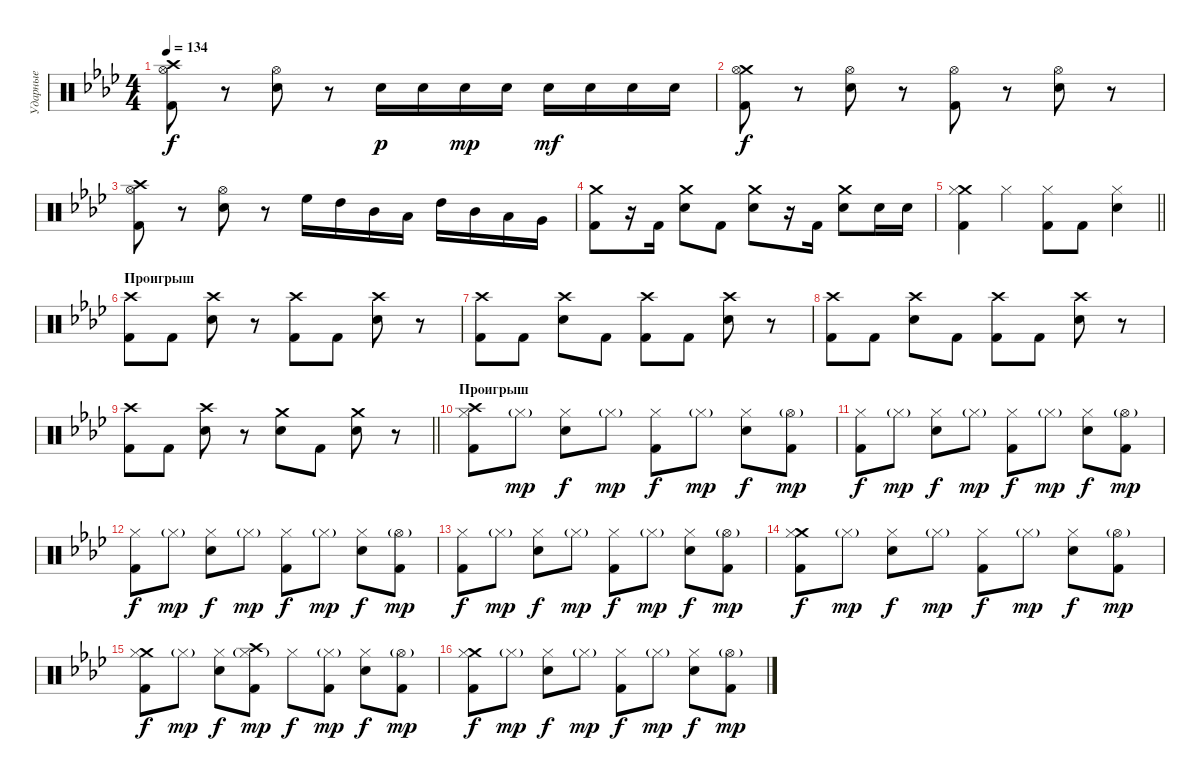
\track ("Ударные" "Ударные") {instrument percussion}
\staff {score}
\articulation defaults
\ts (4 4)
\tempo 134
\clef neutral
\ks fminor
("Crash high (hit)" "Hi-Hat (open)" "Kick (hit) 2").8{dy f} r.8 ("Hi-Hat (open)" "Electric Snare (hit)").8 r.8 "Electric Snare (hit)".16{dy p} "Electric Snare (hit)".16 "Electric Snare (hit)".16{dy mp} "Electric Snare (hit)".16 "Electric Snare (hit)".16{dy mf} "Electric Snare (hit)".16 "Electric Snare (hit)".16 "Electric Snare (hit)".16 |
("Crash medium (hit)" "Hi-Hat (open)" "Kick (hit) 2").8{dy f} r.8 ("Hi-Hat (open)" "Electric Snare (hit)").8 r.8 ("Hi-Hat (open)" "Kick (hit) 2").8 r.8 ("Hi-Hat (open)" "Electric Snare (hit)").8 r.8 |
("Crash high (hit)" "Hi-Hat (open)" "Kick (hit) 2").8 r.8 ("Hi-Hat (open)" "Electric Snare (hit)").8 r.8 "High Floor Tom (hit)".16 "High Tom (hit)".16 "Mid Tom (hit)".16 "Low Tom (hit)".16 "High Tom (hit)".16 "Mid Tom (hit)".16 "Low Tom (hit)".16 "Very Low Tom (hit)".16 |
("Crash medium (hit)" "Kick (hit) 2").8 r.16 "Kick (hit) 2".16 ("Crash medium (hit)" "Electric Snare (hit)").8 "Kick (hit) 2".8 ("Crash medium (hit)" "Electric Snare (hit)").8 r.16 "Kick (hit) 2".16 ("Crash medium (hit)" "Electric Snare (hit)").8 "Electric Snare (hit)".16 "Electric Snare (hit)".16 |
\barLineRight lightlight
("Crash medium (hit)" "Kick (hit) 2" "Hi-Hat (closed)").4 "Hi-Hat (closed)".4 ("Kick (hit) 2" "Hi-Hat (closed)").8 "Kick (hit) 2".8 ("Hi-Hat (closed)" "Electric Snare (hit)").4 |
\section ("" "Проигрыш")
("Crash high (hit)" "Kick (hit) 2").8 "Kick (hit) 2".8 ("Crash high (hit)" "Electric Snare (hit)").8 r.8 ("Crash high (hit)" "Kick (hit) 2").8 "Kick (hit) 2".8 ("Crash high (hit)" "Electric Snare (hit)").8 r.8 |
("Crash high (hit)" "Kick (hit) 2").8 "Kick (hit) 2".8 ("Crash high (hit)" "Electric Snare (hit)").8 "Kick (hit) 2".8 ("Crash high (hit)" "Kick (hit) 2").8 "Kick (hit) 2".8 ("Crash high (hit)" "Electric Snare (hit)").8 r.8 |
("Crash high (hit)" "Kick (hit) 2").8 "Kick (hit) 2".8 ("Crash high (hit)" "Electric Snare (hit)").8 "Kick (hit) 2".8 ("Crash high (hit)" "Kick (hit) 2").8 "Kick (hit) 2".8 ("Crash high (hit)" "Electric Snare (hit)").8 r.8 |
\barLineRight lightlight
("Crash high (hit)" "Kick (hit) 2").8 "Kick (hit) 2".8 ("Crash high (hit)" "Electric Snare (hit)").8 r.8 ("Crash medium (hit)" "Electric Snare (hit)").8 "Kick (hit) 2".8 ("Crash medium (hit)" "Electric Snare (hit)").8 r.8 |
\section ("" "Проигрыш")
("Crash high (hit)" "Hi-Hat (closed)" "Kick (hit) 2").8 "Hi-Hat (closed)"{g}.8{dy mp} ("Hi-Hat (closed)" "Electric Snare (hit)").8{dy f} "Hi-Hat (closed)"{g}.8{dy mp} ("Hi-Hat (closed)" "Kick (hit) 2").8{dy f} "Hi-Hat (closed)"{g}.8{dy mp} ("Hi-Hat (closed)" "Electric Snare (hit)").8{dy f} ("Hi-Hat (open)"{g} "Kick (hit) 2").8{dy mp} |
("Hi-Hat (closed)" "Kick (hit) 2").8{dy f} "Hi-Hat (closed)"{g}.8{dy mp} ("Hi-Hat (closed)" "Electric Snare (hit)").8{dy f} "Hi-Hat (closed)"{g}.8{dy mp} ("Hi-Hat (closed)" "Kick (hit) 2").8{dy f} "Hi-Hat (closed)"{g}.8{dy mp} ("Hi-Hat (closed)" "Electric Snare (hit)").8{dy f} ("Hi-Hat (open)"{g} "Kick (hit) 2").8{dy mp} |
("Hi-Hat (closed)" "Kick (hit) 2").8{dy f} "Hi-Hat (closed)"{g}.8{dy mp} ("Hi-Hat (closed)" "Electric Snare (hit)").8{dy f} "Hi-Hat (closed)"{g}.8{dy mp} ("Hi-Hat (closed)" "Kick (hit) 2").8{dy f} "Hi-Hat (closed)"{g}.8{dy mp} ("Hi-Hat (closed)" "Electric Snare (hit)").8{dy f} ("Hi-Hat (open)"{g} "Kick (hit) 2").8{dy mp} |
("Hi-Hat (closed)" "Kick (hit) 2").8{dy f} "Hi-Hat (closed)"{g}.8{dy mp} ("Hi-Hat (closed)" "Electric Snare (hit)").8{dy f} "Hi-Hat (closed)"{g}.8{dy mp} ("Hi-Hat (closed)" "Kick (hit) 2").8{dy f} "Hi-Hat (closed)"{g}.8{dy mp} ("Hi-Hat (closed)" "Electric Snare (hit)").8{dy f} ("Hi-Hat (open)"{g} "Kick (hit) 2").8{dy mp} |
("Crash medium (hit)" "Hi-Hat (closed)" "Kick (hit) 2").8{dy f} "Hi-Hat (closed)"{g}.8{dy mp} ("Hi-Hat (closed)" "Electric Snare (hit)").8{dy f} "Hi-Hat (closed)"{g}.8{dy mp} ("Hi-Hat (closed)" "Kick (hit) 2").8{dy f} "Hi-Hat (closed)"{g}.8{dy mp} ("Hi-Hat (closed)" "Electric Snare (hit)").8{dy f} ("Hi-Hat (open)"{g} "Kick (hit) 2").8{dy mp} |
("Crash medium (hit)" "Hi-Hat (closed)" "Kick (hit) 2").8{dy f} "Hi-Hat (closed)"{g}.8{dy mp} ("Hi-Hat (closed)" "Electric Snare (hit)").8{dy f} ("Crash high (hit)" "Hi-Hat (closed)"{g} "Kick (hit) 2").8{dy mp} "Hi-Hat (closed)".8{dy f} ("Hi-Hat (closed)"{g} "Kick (hit) 2").8{dy mp} ("Hi-Hat (closed)" "Electric Snare (hit)").8{dy f} ("Hi-Hat (open)"{g} "Kick (hit) 2").8{dy mp} |
("Crash medium (hit)" "Hi-Hat (closed)" "Kick (hit) 2").8{dy f} "Hi-Hat (closed)"{g}.8{dy mp} ("Hi-Hat (closed)" "Electric Snare (hit)").8{dy f} "Hi-Hat (closed)"{g}.8{dy mp} ("Hi-Hat (closed)" "Kick (hit) 2").8{dy f} "Hi-Hat (closed)"{g}.8{dy mp} ("Hi-Hat (closed)" "Electric Snare (hit)").8{dy f} ("Hi-Hat (open)"{g} "Kick (hit) 2").8{dy mp}
